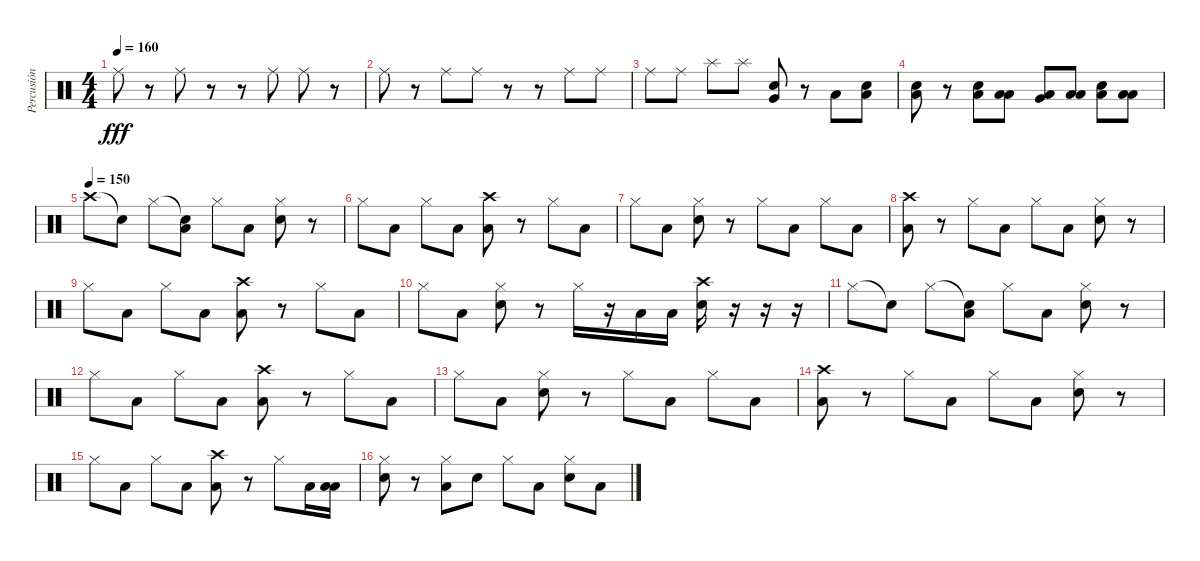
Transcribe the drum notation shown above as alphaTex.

\track ("Percusión" "Percusión") {instrument percussion}
\staff {score}
\articulation defaults
\ts (4 4)
\tempo 160
\clef neutral
\ks c "Ride (middle)".8{dy fff}
r.8 "Ride (middle)".8 r.8 r.8 "Ride (middle)".8 "Ride (middle)".8 r.8 |
"Ride (middle)".8 r.8 "Ride (middle)".8 "Ride (middle)".8 r.8 r.8 "Ride (middle)".8 "Ride (middle)".8 |
"Ride (middle)".8 "Ride (middle)".8 "Splash (hit)".8 "Splash (hit)".8 ("Very Low Tom (hit)" "Snare (hit) 2").8 r.8 "Low Tom (hit)".8 ("Low Floor Tom (hit)" "Snare (hit) 2").8 |
("Low Floor Tom (hit)" "Snare (hit) 2").8 r.8 ("Low Tom (hit)" "Snare (hit) 2").8 ("Low Floor Tom (hit)" "Low Tom (hit)").8 ("Very Low Tom (hit)" "Low Tom (hit)").8 ("Low Floor Tom (hit)" "Low Tom (hit)").8 ("Low Floor Tom (hit)" "Snare (hit) 2").8 ("Low Tom (hit)" "Low Tom (hit)").8 |
\tempo (150)
"Crash high (hit)".8 "Snare (hit)"{t}.8 "Hi-Hat (closed)".8 ("Snare (hit)"{t} "Low Tom (hit)").8 "Hi-Hat (closed)".8 "Low Tom (hit)".8 ("Hi-Hat (closed)" "Snare (hit) 2").8 r.8 |
"Hi-Hat (closed)".8 "Low Tom (hit)".8 "Hi-Hat (closed)".8 "Low Tom (hit)".8 ("Crash high (hit)" "Low Tom (hit)").8 r.8 "Hi-Hat (closed)".8 "Low Tom (hit)".8 |
"Hi-Hat (closed)".8 "Low Tom (hit)".8 ("Hi-Hat (closed)" "Snare (hit) 2").8 r.8 "Hi-Hat (closed)".8 "Low Tom (hit)".8 "Hi-Hat (closed)".8 "Low Tom (hit)".8 |
("Crash high (hit)" "Low Tom (hit)").8 r.8 "Hi-Hat (closed)".8 "Low Tom (hit)".8 "Hi-Hat (closed)".8 "Low Tom (hit)".8 ("Hi-Hat (closed)" "Snare (hit) 2").8 r.8 |
"Hi-Hat (closed)".8 "Low Tom (hit)".8 "Hi-Hat (closed)".8 "Low Tom (hit)".8 ("Crash high (hit)" "Low Tom (hit)").8 r.8 "Hi-Hat (closed)".8 "Low Tom (hit)".8 |
"Hi-Hat (closed)".8 "Low Tom (hit)".8 ("Hi-Hat (closed)" "Snare (hit) 2").8 r.8 "Hi-Hat (closed)".16 r.16 "Low Tom (hit)".16 "Low Tom (hit)".16 ("Crash high (hit)" "Snare (hit) 2").16 r.16 r.16 r.16 |
"Hi-Hat (closed)".8 "Snare (hit)"{t}.8 "Hi-Hat (closed)".8 ("Snare (hit)"{t} "Low Tom (hit)").8 "Hi-Hat (closed)".8 "Low Tom (hit)".8 ("Hi-Hat (closed)" "Snare (hit) 2").8 r.8 |
"Hi-Hat (closed)".8 "Low Tom (hit)".8 "Hi-Hat (closed)".8 "Low Tom (hit)".8 ("Crash high (hit)" "Low Tom (hit)").8 r.8 "Hi-Hat (closed)".8 "Low Tom (hit)".8 |
"Hi-Hat (closed)".8 "Low Tom (hit)".8 ("Hi-Hat (closed)" "Snare (hit) 2").8 r.8 "Hi-Hat (closed)".8 "Low Tom (hit)".8 "Hi-Hat (closed)".8 "Low Tom (hit)".8 |
("Crash high (hit)" "Low Tom (hit)").8 r.8 "Hi-Hat (closed)".8 "Low Tom (hit)".8 "Hi-Hat (closed)".8 "Low Tom (hit)".8 ("Hi-Hat (closed)" "Snare (hit) 2").8 r.8 |
"Hi-Hat (closed)".8 "Low Tom (hit)".8 "Hi-Hat (closed)".8 "Low Tom (hit)".8 ("Crash high (hit)" "Low Tom (hit)").8 r.8 "Hi-Hat (closed)".8 "Low Floor Tom (hit)".16 ("Low Floor Tom (hit)" "Low Tom (hit)").16 |
("Hi-Hat (closed)" "Snare (hit) 2").8 r.8 ("Hi-Hat (closed)" "Low Tom (hit)").8 "Snare (hit) 2".8 "Hi-Hat (closed)".8 "Low Tom (hit)".8 ("Hi-Hat (closed)" "Snare (hit) 2").8 "Low Tom (hit)".8
